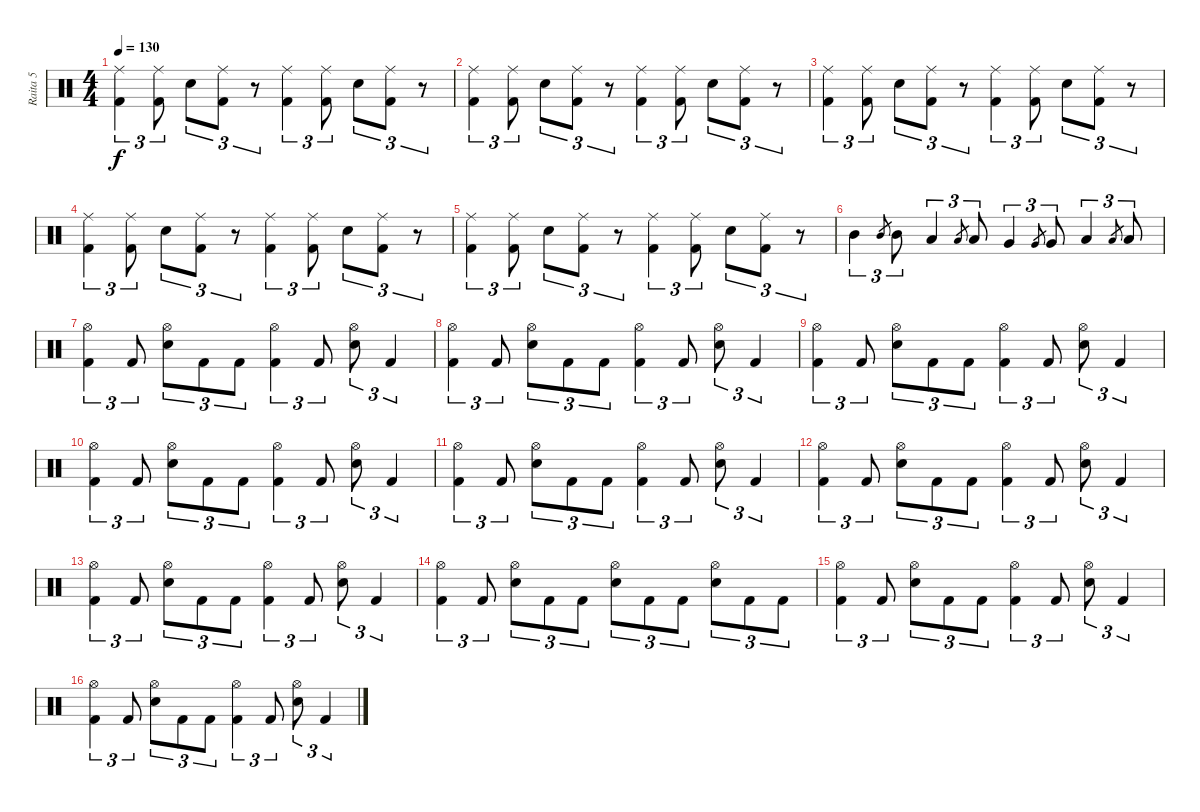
\track ("Raita 5" "Raita 5") {instrument percussion}
\staff {score}
\articulation defaults
\ts (4 4)
\tempo 130
\clef neutral
\ks c
("Ride (middle)" "Kick (hit) 2").4{tu (3 2) dy f} ("Ride (middle)" "Kick (hit) 2").8{tu (3 2)} "Snare (hit) 2".8{tu (3 2)} ("Ride (middle)" "Kick (hit) 2").8{tu (3 2)} r.8{tu (3 2)} ("Ride (middle)" "Kick (hit) 2").4{tu (3 2)} ("Ride (middle)" "Kick (hit) 2").8{tu (3 2)} "Snare (hit) 2".8{tu (3 2)} ("Ride (middle)" "Kick (hit) 2").8{tu (3 2)} r.8{tu (3 2)} |
("Ride (middle)" "Kick (hit) 2").4{tu (3 2)} ("Ride (middle)" "Kick (hit) 2").8{tu (3 2)} "Snare (hit) 2".8{tu (3 2)} ("Ride (middle)" "Kick (hit) 2").8{tu (3 2)} r.8{tu (3 2)} ("Ride (middle)" "Kick (hit) 2").4{tu (3 2)} ("Ride (middle)" "Kick (hit) 2").8{tu (3 2)} "Snare (hit) 2".8{tu (3 2)} ("Ride (middle)" "Kick (hit) 2").8{tu (3 2)} r.8{tu (3 2)} |
("Ride (middle)" "Kick (hit) 2").4{tu (3 2)} ("Ride (middle)" "Kick (hit) 2").8{tu (3 2)} "Snare (hit) 2".8{tu (3 2)} ("Ride (middle)" "Kick (hit) 2").8{tu (3 2)} r.8{tu (3 2)} ("Ride (middle)" "Kick (hit) 2").4{tu (3 2)} ("Ride (middle)" "Kick (hit) 2").8{tu (3 2)} "Snare (hit) 2".8{tu (3 2)} ("Ride (middle)" "Kick (hit) 2").8{tu (3 2)} r.8{tu (3 2)} |
("Ride (middle)" "Kick (hit) 2").4{tu (3 2)} ("Ride (middle)" "Kick (hit) 2").8{tu (3 2)} "Snare (hit) 2".8{tu (3 2)} ("Ride (middle)" "Kick (hit) 2").8{tu (3 2)} r.8{tu (3 2)} ("Ride (middle)" "Kick (hit) 2").4{tu (3 2)} ("Ride (middle)" "Kick (hit) 2").8{tu (3 2)} "Snare (hit) 2".8{tu (3 2)} ("Ride (middle)" "Kick (hit) 2").8{tu (3 2)} r.8{tu (3 2)} |
("Ride (middle)" "Kick (hit) 2").4{tu (3 2)} ("Ride (middle)" "Kick (hit) 2").8{tu (3 2)} "Snare (hit) 2".8{tu (3 2)} ("Ride (middle)" "Kick (hit) 2").8{tu (3 2)} r.8{tu (3 2)} ("Ride (middle)" "Kick (hit) 2").4{tu (3 2)} ("Ride (middle)" "Kick (hit) 2").8{tu (3 2)} "Snare (hit) 2".8{tu (3 2)} ("Ride (middle)" "Kick (hit) 2").8{tu (3 2)} r.8{tu (3 2)} |
"Mid Tom (hit)".4{tu (3 2)} "Mid Tom (hit)".8{gr} "Mid Tom (hit)".8{tu (3 2)} "Low Tom (hit)".4{tu (3 2)} "Low Tom (hit)".8{gr} "Low Tom (hit)".8{tu (3 2)} "Very Low Tom (hit)".4{tu (3 2)} "Very Low Tom (hit)".8{gr} "Very Low Tom (hit)".8{tu (3 2)} "Low Floor Tom (hit)".4{tu (3 2)} "Low Floor Tom (hit)".8{gr} "Low Floor Tom (hit)".8{tu (3 2)} |
("Hi-Hat (open)" "Kick (hit) 2").4{tu (3 2)} "Kick (hit) 2".8{tu (3 2)} ("Hi-Hat (open)" "Snare (hit) 2").8{tu (3 2)} "Kick (hit) 2".8{tu (3 2)} "Kick (hit) 2".8{tu (3 2)} ("Hi-Hat (open)" "Kick (hit) 2").4{tu (3 2)} "Kick (hit) 2".8{tu (3 2)} ("Hi-Hat (open)" "Snare (hit) 2").8{tu (3 2)} "Kick (hit) 2".4{tu (3 2)} |
("Hi-Hat (open)" "Kick (hit) 2").4{tu (3 2)} "Kick (hit) 2".8{tu (3 2)} ("Hi-Hat (open)" "Snare (hit) 2").8{tu (3 2)} "Kick (hit) 2".8{tu (3 2)} "Kick (hit) 2".8{tu (3 2)} ("Hi-Hat (open)" "Kick (hit) 2").4{tu (3 2)} "Kick (hit) 2".8{tu (3 2)} ("Hi-Hat (open)" "Snare (hit) 2").8{tu (3 2)} "Kick (hit) 2".4{tu (3 2)} |
("Hi-Hat (open)" "Kick (hit) 2").4{tu (3 2)} "Kick (hit) 2".8{tu (3 2)} ("Hi-Hat (open)" "Snare (hit) 2").8{tu (3 2)} "Kick (hit) 2".8{tu (3 2)} "Kick (hit) 2".8{tu (3 2)} ("Hi-Hat (open)" "Kick (hit) 2").4{tu (3 2)} "Kick (hit) 2".8{tu (3 2)} ("Hi-Hat (open)" "Snare (hit) 2").8{tu (3 2)} "Kick (hit) 2".4{tu (3 2)} |
("Hi-Hat (open)" "Kick (hit) 2").4{tu (3 2)} "Kick (hit) 2".8{tu (3 2)} ("Hi-Hat (open)" "Snare (hit) 2").8{tu (3 2)} "Kick (hit) 2".8{tu (3 2)} "Kick (hit) 2".8{tu (3 2)} ("Hi-Hat (open)" "Kick (hit) 2").4{tu (3 2)} "Kick (hit) 2".8{tu (3 2)} ("Hi-Hat (open)" "Snare (hit) 2").8{tu (3 2)} "Kick (hit) 2".4{tu (3 2)} |
("Hi-Hat (open)" "Kick (hit) 2").4{tu (3 2)} "Kick (hit) 2".8{tu (3 2)} ("Hi-Hat (open)" "Snare (hit) 2").8{tu (3 2)} "Kick (hit) 2".8{tu (3 2)} "Kick (hit) 2".8{tu (3 2)} ("Hi-Hat (open)" "Kick (hit) 2").4{tu (3 2)} "Kick (hit) 2".8{tu (3 2)} ("Hi-Hat (open)" "Snare (hit) 2").8{tu (3 2)} "Kick (hit) 2".4{tu (3 2)} |
("Hi-Hat (open)" "Kick (hit) 2").4{tu (3 2)} "Kick (hit) 2".8{tu (3 2)} ("Hi-Hat (open)" "Snare (hit) 2").8{tu (3 2)} "Kick (hit) 2".8{tu (3 2)} "Kick (hit) 2".8{tu (3 2)} ("Hi-Hat (open)" "Kick (hit) 2").4{tu (3 2)} "Kick (hit) 2".8{tu (3 2)} ("Hi-Hat (open)" "Snare (hit) 2").8{tu (3 2)} "Kick (hit) 2".4{tu (3 2)} |
("Hi-Hat (open)" "Kick (hit) 2").4{tu (3 2)} "Kick (hit) 2".8{tu (3 2)} ("Hi-Hat (open)" "Snare (hit) 2").8{tu (3 2)} "Kick (hit) 2".8{tu (3 2)} "Kick (hit) 2".8{tu (3 2)} ("Hi-Hat (open)" "Kick (hit) 2").4{tu (3 2)} "Kick (hit) 2".8{tu (3 2)} ("Hi-Hat (open)" "Snare (hit) 2").8{tu (3 2)} "Kick (hit) 2".4{tu (3 2)} |
("Hi-Hat (open)" "Kick (hit) 2").4{tu (3 2)} "Kick (hit) 2".8{tu (3 2)} ("Hi-Hat (open)" "Snare (hit) 2").8{tu (3 2)} "Kick (hit) 2".8{tu (3 2)} "Kick (hit) 2".8{tu (3 2)} ("Hi-Hat (open)" "Snare (hit) 2").8{tu (3 2)} "Kick (hit) 2".8{tu (3 2)} "Kick (hit) 2".8{tu (3 2)} ("Hi-Hat (open)" "Snare (hit) 2").8{tu (3 2)} "Kick (hit) 2".8{tu (3 2)} "Kick (hit) 2".8{tu (3 2)} |
("Hi-Hat (open)" "Kick (hit) 2").4{tu (3 2)} "Kick (hit) 2".8{tu (3 2)} ("Hi-Hat (open)" "Snare (hit) 2").8{tu (3 2)} "Kick (hit) 2".8{tu (3 2)} "Kick (hit) 2".8{tu (3 2)} ("Hi-Hat (open)" "Kick (hit) 2").4{tu (3 2)} "Kick (hit) 2".8{tu (3 2)} ("Hi-Hat (open)" "Snare (hit) 2").8{tu (3 2)} "Kick (hit) 2".4{tu (3 2)} |
("Hi-Hat (open)" "Kick (hit) 2").4{tu (3 2)} "Kick (hit) 2".8{tu (3 2)} ("Hi-Hat (open)" "Snare (hit) 2").8{tu (3 2)} "Kick (hit) 2".8{tu (3 2)} "Kick (hit) 2".8{tu (3 2)} ("Hi-Hat (open)" "Kick (hit) 2").4{tu (3 2)} "Kick (hit) 2".8{tu (3 2)} ("Hi-Hat (open)" "Snare (hit) 2").8{tu (3 2)} "Kick (hit) 2".4{tu (3 2)}
